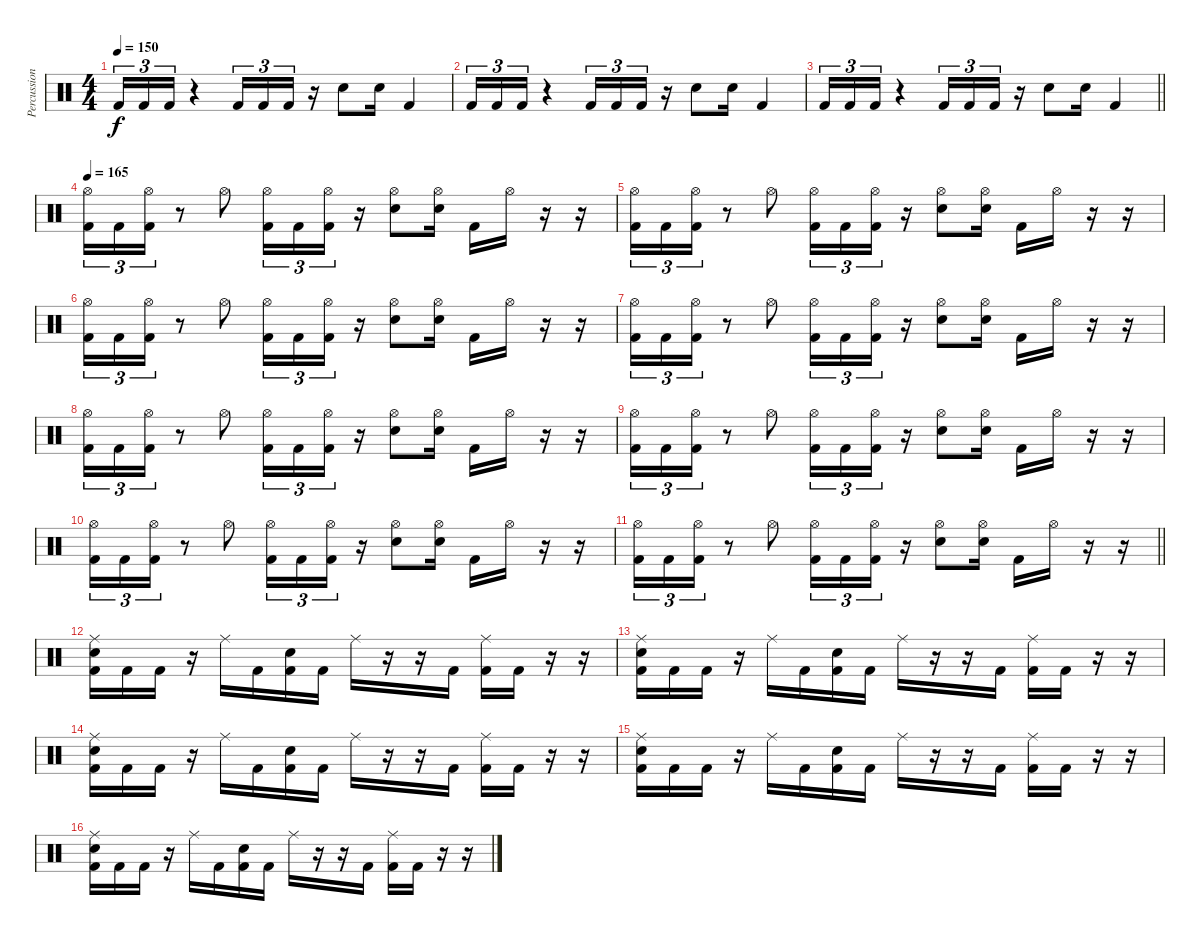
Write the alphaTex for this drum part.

\track ("Percussion" "Percussion") {instrument percussion}
\staff {score}
\articulation defaults
\ts (4 4)
\tempo 150
\clef neutral
\ks c "Kick (hit) 2".16{tu (3 2) dy f} "Kick (hit) 2".16{tu (3 2)} "Kick (hit) 2".16{tu (3 2)}
r.4 "Kick (hit) 2".16{tu (3 2)} "Kick (hit) 2".16{tu (3 2)} "Kick (hit) 2".16{tu (3 2)} r.16 "Electric Snare (hit)".8 "Electric Snare (hit)".16 "Kick (hit) 2".4 |
"Kick (hit) 2".16{tu (3 2)} "Kick (hit) 2".16{tu (3 2)} "Kick (hit) 2".16{tu (3 2)} r.4 "Kick (hit) 2".16{tu (3 2)} "Kick (hit) 2".16{tu (3 2)} "Kick (hit) 2".16{tu (3 2)} r.16 "Electric Snare (hit)".8 "Electric Snare (hit)".16 "Kick (hit) 2".4 |
\barLineRight lightlight "Kick (hit) 2".16{tu (3 2)} "Kick (hit) 2".16{tu (3 2)} "Kick (hit) 2".16{tu (3 2)}
r.4 "Kick (hit) 2".16{tu (3 2)} "Kick (hit) 2".16{tu (3 2)} "Kick (hit) 2".16{tu (3 2)} r.16 "Electric Snare (hit)".8 "Electric Snare (hit)".16 "Kick (hit) 2".4 |
\tempo 165
("Hi-Hat (open)" "Kick (hit) 2").16{tu (3 2)} "Kick (hit) 2".16{tu (3 2)} ("Hi-Hat (open)" "Kick (hit) 2").16{tu (3 2)} r.8 "Hi-Hat (open)".8 ("Hi-Hat (open)" "Kick (hit) 2").16{tu (3 2)} "Kick (hit) 2".16{tu (3 2)} ("Hi-Hat (open)" "Kick (hit) 2").16{tu (3 2)} r.16 ("Hi-Hat (open)" "Electric Snare (hit)").8 ("Hi-Hat (open)" "Electric Snare (hit)").16 "Kick (hit) 2".16 "Hi-Hat (open)".16 r.16 r.16 |
("Hi-Hat (open)" "Kick (hit) 2").16{tu (3 2)} "Kick (hit) 2".16{tu (3 2)} ("Hi-Hat (open)" "Kick (hit) 2").16{tu (3 2)} r.8 "Hi-Hat (open)".8 ("Hi-Hat (open)" "Kick (hit) 2").16{tu (3 2)} "Kick (hit) 2".16{tu (3 2)} ("Hi-Hat (open)" "Kick (hit) 2").16{tu (3 2)} r.16 ("Hi-Hat (open)" "Electric Snare (hit)").8 ("Hi-Hat (open)" "Electric Snare (hit)").16 "Kick (hit) 2".16 "Hi-Hat (open)".16 r.16 r.16 |
("Hi-Hat (open)" "Kick (hit) 2").16{tu (3 2)} "Kick (hit) 2".16{tu (3 2)} ("Hi-Hat (open)" "Kick (hit) 2").16{tu (3 2)} r.8 "Hi-Hat (open)".8 ("Hi-Hat (open)" "Kick (hit) 2").16{tu (3 2)} "Kick (hit) 2".16{tu (3 2)} ("Hi-Hat (open)" "Kick (hit) 2").16{tu (3 2)} r.16 ("Hi-Hat (open)" "Electric Snare (hit)").8 ("Hi-Hat (open)" "Electric Snare (hit)").16 "Kick (hit) 2".16 "Hi-Hat (open)".16 r.16 r.16 |
("Hi-Hat (open)" "Kick (hit) 2").16{tu (3 2)} "Kick (hit) 2".16{tu (3 2)} ("Hi-Hat (open)" "Kick (hit) 2").16{tu (3 2)} r.8 "Hi-Hat (open)".8 ("Hi-Hat (open)" "Kick (hit) 2").16{tu (3 2)} "Kick (hit) 2".16{tu (3 2)} ("Hi-Hat (open)" "Kick (hit) 2").16{tu (3 2)} r.16 ("Hi-Hat (open)" "Electric Snare (hit)").8 ("Hi-Hat (open)" "Electric Snare (hit)").16 "Kick (hit) 2".16 "Hi-Hat (open)".16 r.16 r.16 |
("Hi-Hat (open)" "Kick (hit) 2").16{tu (3 2)} "Kick (hit) 2".16{tu (3 2)} ("Hi-Hat (open)" "Kick (hit) 2").16{tu (3 2)} r.8 "Hi-Hat (open)".8 ("Hi-Hat (open)" "Kick (hit) 2").16{tu (3 2)} "Kick (hit) 2".16{tu (3 2)} ("Hi-Hat (open)" "Kick (hit) 2").16{tu (3 2)} r.16 ("Hi-Hat (open)" "Electric Snare (hit)").8 ("Hi-Hat (open)" "Electric Snare (hit)").16 "Kick (hit) 2".16 "Hi-Hat (open)".16 r.16 r.16 |
("Hi-Hat (open)" "Kick (hit) 2").16{tu (3 2)} "Kick (hit) 2".16{tu (3 2)} ("Hi-Hat (open)" "Kick (hit) 2").16{tu (3 2)} r.8 "Hi-Hat (open)".8 ("Hi-Hat (open)" "Kick (hit) 2").16{tu (3 2)} "Kick (hit) 2".16{tu (3 2)} ("Hi-Hat (open)" "Kick (hit) 2").16{tu (3 2)} r.16 ("Hi-Hat (open)" "Electric Snare (hit)").8 ("Hi-Hat (open)" "Electric Snare (hit)").16 "Kick (hit) 2".16 "Hi-Hat (open)".16 r.16 r.16 |
("Hi-Hat (open)" "Kick (hit) 2").16{tu (3 2)} "Kick (hit) 2".16{tu (3 2)} ("Hi-Hat (open)" "Kick (hit) 2").16{tu (3 2)} r.8 "Hi-Hat (open)".8 ("Hi-Hat (open)" "Kick (hit) 2").16{tu (3 2)} "Kick (hit) 2".16{tu (3 2)} ("Hi-Hat (open)" "Kick (hit) 2").16{tu (3 2)} r.16 ("Hi-Hat (open)" "Electric Snare (hit)").8 ("Hi-Hat (open)" "Electric Snare (hit)").16 "Kick (hit) 2".16 "Hi-Hat (open)".16 r.16 r.16 |
\barLineRight lightlight
("Hi-Hat (open)" "Kick (hit) 2").16{tu (3 2)} "Kick (hit) 2".16{tu (3 2)} ("Hi-Hat (open)" "Kick (hit) 2").16{tu (3 2)} r.8 "Hi-Hat (open)".8 ("Hi-Hat (open)" "Kick (hit) 2").16{tu (3 2)} "Kick (hit) 2".16{tu (3 2)} ("Hi-Hat (open)" "Kick (hit) 2").16{tu (3 2)} r.16 ("Hi-Hat (open)" "Electric Snare (hit)").8 ("Hi-Hat (open)" "Electric Snare (hit)").16 "Kick (hit) 2".16 "Hi-Hat (open)".16 r.16 r.16 |
("Ride (middle)" "Electric Snare (hit)" "Kick (hit) 2").16 "Kick (hit) 2".16 "Kick (hit) 2".16 r.16 "Ride (middle)".16 "Kick (hit) 2".16 ("Electric Snare (hit)" "Kick (hit) 2").16 "Kick (hit) 2".16 "Ride (middle)".16 r.16 r.16 "Kick (hit) 2".16 ("Ride (middle)" "Kick (hit) 2").16 "Kick (hit) 2".16 r.16 r.16 |
("Ride (middle)" "Electric Snare (hit)" "Kick (hit) 2").16 "Kick (hit) 2".16 "Kick (hit) 2".16 r.16 "Ride (middle)".16 "Kick (hit) 2".16 ("Electric Snare (hit)" "Kick (hit) 2").16 "Kick (hit) 2".16 "Ride (middle)".16 r.16 r.16 "Kick (hit) 2".16 ("Ride (middle)" "Kick (hit) 2").16 "Kick (hit) 2".16 r.16 r.16 |
("Ride (middle)" "Electric Snare (hit)" "Kick (hit) 2").16 "Kick (hit) 2".16 "Kick (hit) 2".16 r.16 "Ride (middle)".16 "Kick (hit) 2".16 ("Electric Snare (hit)" "Kick (hit) 2").16 "Kick (hit) 2".16 "Ride (middle)".16 r.16 r.16 "Kick (hit) 2".16 ("Ride (middle)" "Kick (hit) 2").16 "Kick (hit) 2".16 r.16 r.16 |
("Ride (middle)" "Electric Snare (hit)" "Kick (hit) 2").16 "Kick (hit) 2".16 "Kick (hit) 2".16 r.16 "Ride (middle)".16 "Kick (hit) 2".16 ("Electric Snare (hit)" "Kick (hit) 2").16 "Kick (hit) 2".16 "Ride (middle)".16 r.16 r.16 "Kick (hit) 2".16 ("Ride (middle)" "Kick (hit) 2").16 "Kick (hit) 2".16 r.16 r.16 |
("Ride (middle)" "Electric Snare (hit)" "Kick (hit) 2").16 "Kick (hit) 2".16 "Kick (hit) 2".16 r.16 "Ride (middle)".16 "Kick (hit) 2".16 ("Electric Snare (hit)" "Kick (hit) 2").16 "Kick (hit) 2".16 "Ride (middle)".16 r.16 r.16 "Kick (hit) 2".16 ("Ride (middle)" "Kick (hit) 2").16 "Kick (hit) 2".16 r.16 r.16
